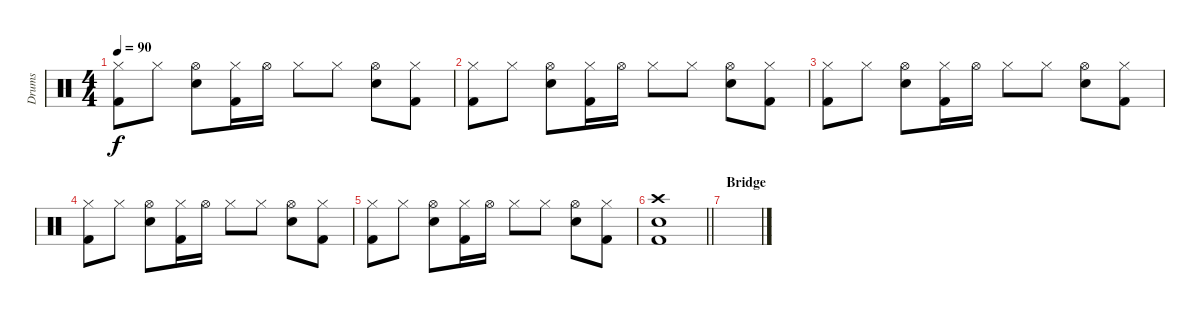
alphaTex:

\track ("Drums" "Drums") {instrument percussion}
\staff {score}
\articulation defaults
\ts (4 4)
\tempo 90
\clef neutral
\ks c
("Kick (hit) 2" "Hi-Hat (closed)").8{dy f} "Hi-Hat (closed)".8 ("Snare (hit) 2" "Hi-Hat (open)").8 ("Kick (hit) 2" "Hi-Hat (closed)").16 "Hi-Hat (open)".16 "Hi-Hat (closed)".8 "Hi-Hat (closed)".8 ("Snare (hit) 2" "Hi-Hat (open)").8 ("Kick (hit) 2" "Hi-Hat (closed)").8 |
("Kick (hit) 2" "Hi-Hat (closed)").8 "Hi-Hat (closed)".8 ("Snare (hit) 2" "Hi-Hat (open)").8 ("Kick (hit) 2" "Hi-Hat (closed)").16 "Hi-Hat (open)".16 "Hi-Hat (closed)".8 "Hi-Hat (closed)".8 ("Snare (hit) 2" "Hi-Hat (open)").8 ("Kick (hit) 2" "Hi-Hat (closed)").8 |
("Kick (hit) 2" "Hi-Hat (closed)").8 "Hi-Hat (closed)".8 ("Snare (hit) 2" "Hi-Hat (open)").8 ("Kick (hit) 2" "Hi-Hat (closed)").16 "Hi-Hat (open)".16 "Hi-Hat (closed)".8 "Hi-Hat (closed)".8 ("Snare (hit) 2" "Hi-Hat (open)").8 ("Kick (hit) 2" "Hi-Hat (closed)").8 |
("Kick (hit) 2" "Hi-Hat (closed)").8 "Hi-Hat (closed)".8 ("Snare (hit) 2" "Hi-Hat (open)").8 ("Kick (hit) 2" "Hi-Hat (closed)").16 "Hi-Hat (open)".16 "Hi-Hat (closed)".8 "Hi-Hat (closed)".8 ("Snare (hit) 2" "Hi-Hat (open)").8 ("Kick (hit) 2" "Hi-Hat (closed)").8 |
("Kick (hit) 2" "Hi-Hat (closed)").8 "Hi-Hat (closed)".8 ("Snare (hit) 2" "Hi-Hat (open)").8 ("Kick (hit) 2" "Hi-Hat (closed)").16 "Hi-Hat (open)".16 "Hi-Hat (closed)".8 "Hi-Hat (closed)".8 ("Snare (hit) 2" "Hi-Hat (open)").8 ("Kick (hit) 2" "Hi-Hat (closed)").8 |
\barLineRight lightlight
("Crash high (hit)" "Kick (hit) 2" "Snare (hit) 2").1 |
\section ("" "Bridge")
